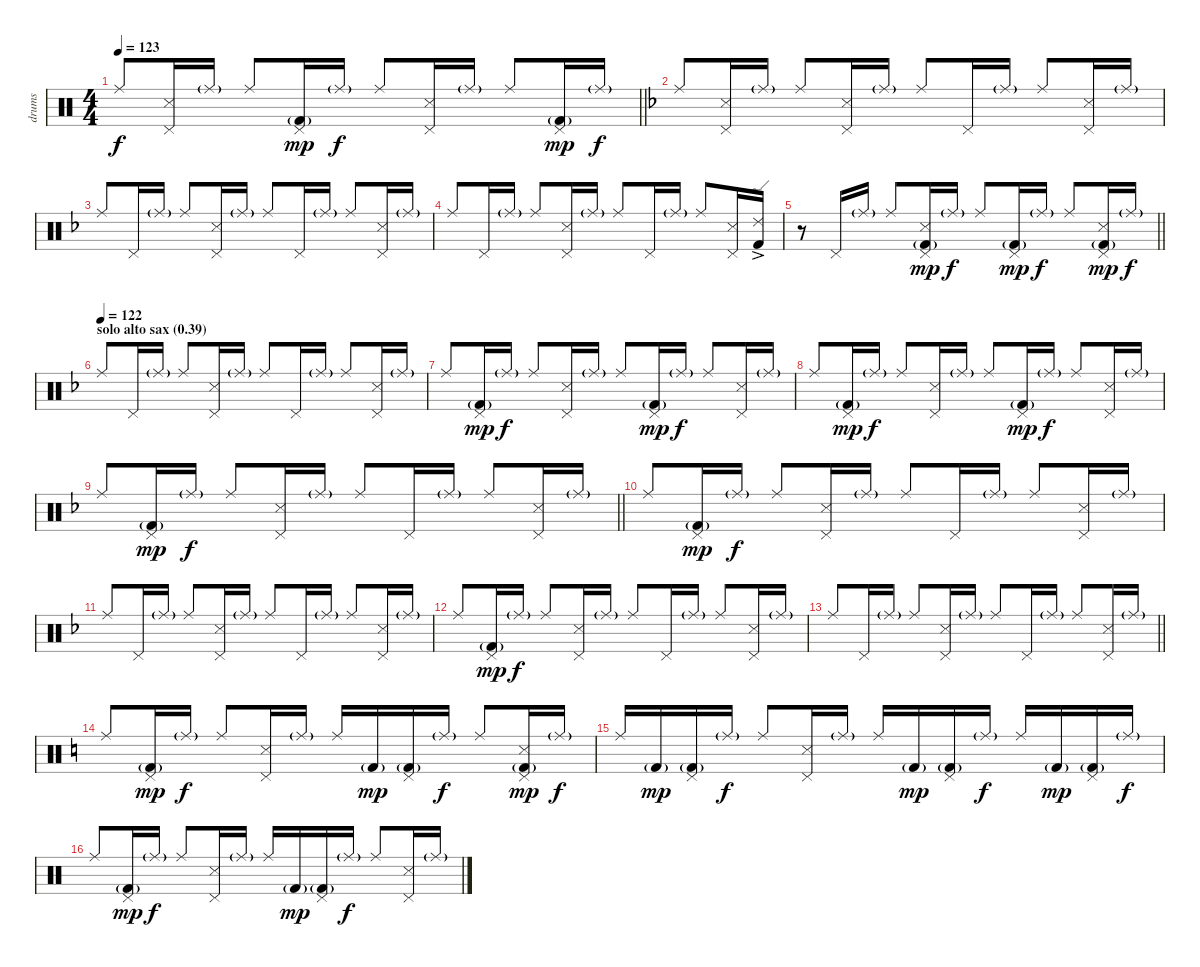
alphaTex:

\track ("drums" "drums") {instrument percussion}
\staff {score}
\articulation defaults
\ts (4 4)
\tempo 123
\clef neutral
\barLineRight lightlight
\ks c "Ride (middle)".8{dy f}
("Pedal Hi-Hat (hit)" "Snare (side stick) 3").16 "Ride (middle)"{g}.16 "Ride (middle)".8 ("Pedal Hi-Hat (hit)" "Kick (hit) 2"{g}).16{dy mp} "Ride (middle)"{g}.16{dy f} "Ride (middle)".8 ("Pedal Hi-Hat (hit)" "Snare (side stick) 3").16 "Ride (middle)"{g}.16 "Ride (middle)".8 ("Pedal Hi-Hat (hit)" "Kick (hit) 2"{g}).16{dy mp} "Ride (middle)"{g}.16{dy f} |
\ks f "Ride (middle)".8
("Pedal Hi-Hat (hit)" "Snare (side stick) 3").16 "Ride (middle)"{g}.16 "Ride (middle)".8 ("Pedal Hi-Hat (hit)" "Snare (side stick) 3").16 "Ride (middle)"{g}.16 "Ride (middle)".8 "Pedal Hi-Hat (hit)".16 "Ride (middle)"{g}.16 "Ride (middle)".8 ("Pedal Hi-Hat (hit)" "Snare (side stick) 3").16 "Ride (middle)"{g}.16 |
"Ride (middle)".8 "Pedal Hi-Hat (hit)".16 "Ride (middle)"{g}.16 "Ride (middle)".8 ("Pedal Hi-Hat (hit)" "Snare (side stick) 3").16 "Ride (middle)"{g}.16 "Ride (middle)".8 "Pedal Hi-Hat (hit)".16 "Ride (middle)"{g}.16 "Ride (middle)".8 ("Pedal Hi-Hat (hit)" "Snare (side stick) 3").16 "Ride (middle)"{g}.16 |
"Ride (middle)".8 "Pedal Hi-Hat (hit)".16 "Ride (middle)"{g}.16 "Ride (middle)".8 ("Pedal Hi-Hat (hit)" "Snare (side stick) 3").16 "Ride (middle)"{g}.16 "Ride (middle)".8 "Pedal Hi-Hat (hit)".16 "Ride (middle)"{g}.16 "Ride (middle)".8 ("Pedal Hi-Hat (hit)" "Snare (side stick) 3").16 ("Ride (edge) 2"{ac} "Kick (hit) 2").16 |
\barLineRight lightlight
r.8 "Pedal Hi-Hat (hit)".16 "Ride (middle)"{g}.16 "Ride (middle)".8 ("Pedal Hi-Hat (hit)" "Snare (side stick) 3" "Kick (hit) 2"{g}).16{dy mp} "Ride (middle)"{g}.16{dy f} "Ride (middle)".8 ("Pedal Hi-Hat (hit)" "Kick (hit) 2"{g}).16{dy mp} "Ride (middle)"{g}.16{dy f} "Ride (middle)".8 ("Pedal Hi-Hat (hit)" "Snare (side stick) 3" "Kick (hit) 2"{g}).16{dy mp} "Ride (middle)"{g}.16{dy f} |
\section ("" "solo alto sax (0.39)")
\tempo (122)
"Ride (middle)".8 "Pedal Hi-Hat (hit)".16 "Ride (middle)"{g}.16 "Ride (middle)".8 ("Pedal Hi-Hat (hit)" "Snare (side stick) 3").16 "Ride (middle)"{g}.16 "Ride (middle)".8 "Pedal Hi-Hat (hit)".16 "Ride (middle)"{g}.16 "Ride (middle)".8 ("Pedal Hi-Hat (hit)" "Snare (side stick) 3").16 "Ride (middle)"{g}.16 |
"Ride (middle)".8 ("Pedal Hi-Hat (hit)" "Kick (hit) 2"{g}).16{dy mp} "Ride (middle)"{g}.16{dy f} "Ride (middle)".8 ("Pedal Hi-Hat (hit)" "Snare (side stick) 3").16 "Ride (middle)"{g}.16 "Ride (middle)".8 ("Pedal Hi-Hat (hit)" "Kick (hit) 2"{g}).16{dy mp} "Ride (middle)"{g}.16{dy f} "Ride (middle)".8 ("Pedal Hi-Hat (hit)" "Snare (side stick) 3").16 "Ride (middle)"{g}.16 |
"Ride (middle)".8 ("Pedal Hi-Hat (hit)" "Kick (hit) 2"{g}).16{dy mp} "Ride (middle)"{g}.16{dy f} "Ride (middle)".8 ("Pedal Hi-Hat (hit)" "Snare (side stick) 3").16 "Ride (middle)"{g}.16 "Ride (middle)".8 ("Pedal Hi-Hat (hit)" "Kick (hit) 2"{g}).16{dy mp} "Ride (middle)"{g}.16{dy f} "Ride (middle)".8 ("Pedal Hi-Hat (hit)" "Snare (side stick) 3").16 "Ride (middle)"{g}.16 |
\barLineRight lightlight "Ride (middle)".8
("Pedal Hi-Hat (hit)" "Kick (hit) 2"{g}).16{dy mp} "Ride (middle)"{g}.16{dy f} "Ride (middle)".8 ("Pedal Hi-Hat (hit)" "Snare (side stick) 3").16 "Ride (middle)"{g}.16 "Ride (middle)".8 "Pedal Hi-Hat (hit)".16 "Ride (middle)"{g}.16 "Ride (middle)".8 ("Pedal Hi-Hat (hit)" "Snare (side stick) 3").16 "Ride (middle)"{g}.16 |
"Ride (middle)".8 ("Pedal Hi-Hat (hit)" "Kick (hit) 2"{g}).16{dy mp} "Ride (middle)"{g}.16{dy f} "Ride (middle)".8 ("Pedal Hi-Hat (hit)" "Snare (side stick) 3").16 "Ride (middle)"{g}.16 "Ride (middle)".8 "Pedal Hi-Hat (hit)".16 "Ride (middle)"{g}.16 "Ride (middle)".8 ("Pedal Hi-Hat (hit)" "Snare (side stick) 3").16 "Ride (middle)"{g}.16 |
"Ride (middle)".8 "Pedal Hi-Hat (hit)".16 "Ride (middle)"{g}.16 "Ride (middle)".8 ("Pedal Hi-Hat (hit)" "Snare (side stick) 3").16 "Ride (middle)"{g}.16 "Ride (middle)".8 "Pedal Hi-Hat (hit)".16 "Ride (middle)"{g}.16 "Ride (middle)".8 ("Pedal Hi-Hat (hit)" "Snare (side stick) 3").16 "Ride (middle)"{g}.16 |
"Ride (middle)".8 ("Pedal Hi-Hat (hit)" "Kick (hit) 2"{g}).16{dy mp} "Ride (middle)"{g}.16{dy f} "Ride (middle)".8 ("Pedal Hi-Hat (hit)" "Snare (side stick) 3").16 "Ride (middle)"{g}.16 "Ride (middle)".8 "Pedal Hi-Hat (hit)".16 "Ride (middle)"{g}.16 "Ride (middle)".8 ("Pedal Hi-Hat (hit)" "Snare (side stick) 3").16 "Ride (middle)"{g}.16 |
\barLineRight lightlight "Ride (middle)".8 "Pedal Hi-Hat (hit)".16 "Ride (middle)"{g}.16 "Ride (middle)".8
("Pedal Hi-Hat (hit)" "Snare (side stick) 3").16 "Ride (middle)"{g}.16 "Ride (middle)".8 "Pedal Hi-Hat (hit)".16 "Ride (middle)"{g}.16 "Ride (middle)".8 ("Pedal Hi-Hat (hit)" "Snare (side stick) 3").16 "Ride (middle)"{g}.16 |
\ks c "Ride (middle)".8
("Pedal Hi-Hat (hit)" "Kick (hit) 2"{g}).16{dy mp} "Ride (middle)"{g}.16{dy f} "Ride (middle)".8 ("Pedal Hi-Hat (hit)" "Snare (side stick) 3").16 "Ride (middle)"{g}.16 "Ride (middle)".16 "Kick (hit) 2"{g}.16{dy mp} ("Pedal Hi-Hat (hit)" "Kick (hit) 2"{g}).16 "Ride (middle)"{g}.16{dy f} "Ride (middle)".8 ("Pedal Hi-Hat (hit)" "Snare (side stick) 3" "Kick (hit) 2"{g}).16{dy mp} "Ride (middle)"{g}.16{dy f} |
"Ride (middle)".16 "Kick (hit) 2"{g}.16{dy mp} ("Pedal Hi-Hat (hit)" "Kick (hit) 2"{g}).16 "Ride (middle)"{g}.16{dy f} "Ride (middle)".8 ("Pedal Hi-Hat (hit)" "Snare (side stick) 3").16 "Ride (middle)"{g}.16 "Ride (middle)".16 "Kick (hit) 2"{g}.16{dy mp} ("Pedal Hi-Hat (hit)" "Kick (hit) 2"{g}).16 "Ride (middle)"{g}.16{dy f} "Ride (middle)".16 "Kick (hit) 2"{g}.16{dy mp} ("Pedal Hi-Hat (hit)" "Kick (hit) 2"{g}).16 "Ride (middle)"{g}.16{dy f} |
"Ride (middle)".8 ("Pedal Hi-Hat (hit)" "Kick (hit) 2"{g}).16{dy mp} "Ride (middle)"{g}.16{dy f} "Ride (middle)".8 ("Pedal Hi-Hat (hit)" "Snare (side stick) 3").16 "Ride (middle)"{g}.16 "Ride (middle)".16 "Kick (hit) 2"{g}.16{dy mp} ("Pedal Hi-Hat (hit)" "Kick (hit) 2"{g}).16 "Ride (middle)"{g}.16{dy f} "Ride (middle)".8 ("Pedal Hi-Hat (hit)" "Snare (side stick) 3").16 "Ride (middle)"{g}.16
